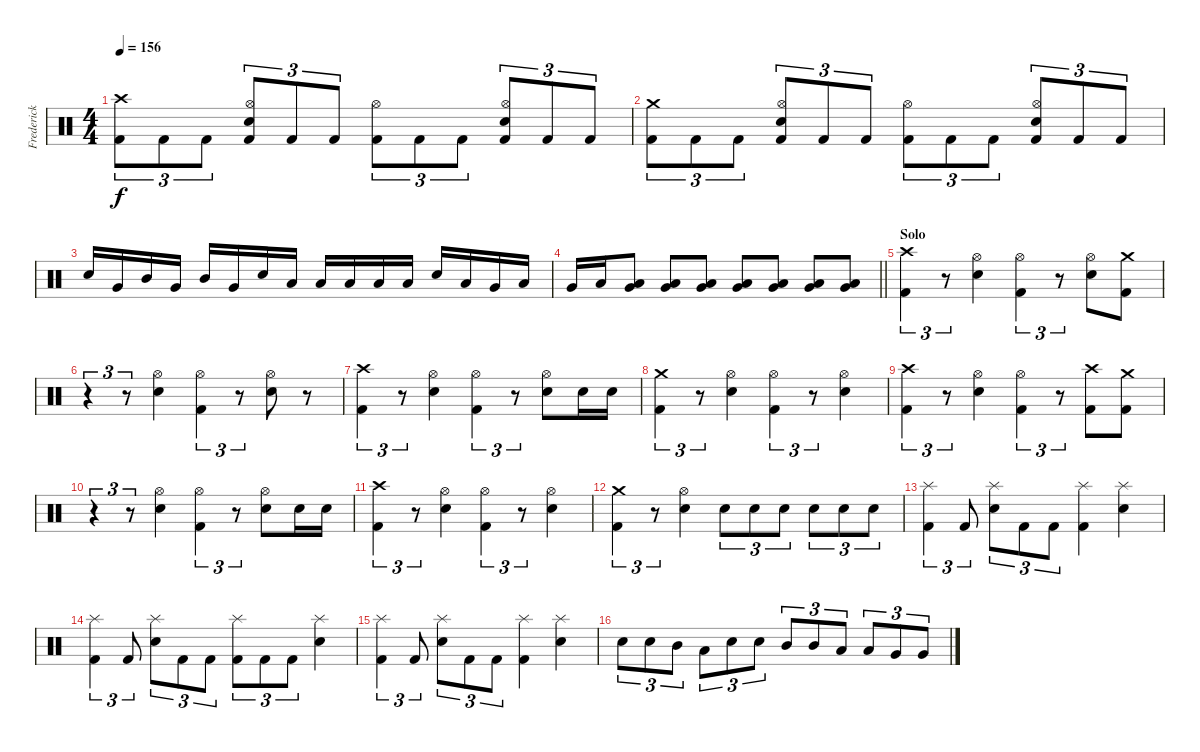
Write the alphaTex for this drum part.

\track ("Frederick Ehmke" "Frederick ") {instrument percussion}
\staff {score}
\articulation defaults
\ts (4 4)
\tempo 156
\clef neutral
\ks c
("Crash high (hit)" "Kick (hit) 2").8{tu (3 2) dy f} "Kick (hit) 2".8{tu (3 2)} "Kick (hit) 2".8{tu (3 2)} ("Hi-Hat (open)" "Kick (hit) 2" "Electric Snare (hit)").8{tu (3 2)} "Kick (hit) 2".8{tu (3 2)} "Kick (hit) 2".8{tu (3 2)} ("Hi-Hat (open)" "Kick (hit) 2").8{tu (3 2)} "Kick (hit) 2".8{tu (3 2)} "Kick (hit) 2".8{tu (3 2)} ("Hi-Hat (open)" "Kick (hit) 2" "Electric Snare (hit)").8{tu (3 2)} "Kick (hit) 2".8{tu (3 2)} "Kick (hit) 2".8{tu (3 2)} |
("Crash medium (hit)" "Kick (hit) 2").8{tu (3 2)} "Kick (hit) 2".8{tu (3 2)} "Kick (hit) 2".8{tu (3 2)} ("Hi-Hat (open)" "Kick (hit) 2" "Electric Snare (hit)").8{tu (3 2)} "Kick (hit) 2".8{tu (3 2)} "Kick (hit) 2".8{tu (3 2)} ("Hi-Hat (open)" "Kick (hit) 2").8{tu (3 2)} "Kick (hit) 2".8{tu (3 2)} "Kick (hit) 2".8{tu (3 2)} ("Hi-Hat (open)" "Kick (hit) 2" "Electric Snare (hit)").8{tu (3 2)} "Kick (hit) 2".8{tu (3 2)} "Kick (hit) 2".8{tu (3 2)} |
"Electric Snare (hit)".16 "Very Low Tom (hit)".16 "Mid Tom (hit)".16 "Very Low Tom (hit)".16 "Mid Tom (hit)".16 "Very Low Tom (hit)".16 "Electric Snare (hit)".16 "Low Floor Tom (hit)".16 "Low Tom (hit)".16 "Low Floor Tom (hit)".16 "Low Tom (hit)".16 "Low Floor Tom (hit)".16 "Electric Snare (hit)".16 "Low Floor Tom (hit)".16 "Very Low Tom (hit)".16 "Low Floor Tom (hit)".16 |
\barLineRight lightlight "Very Low Tom (hit)".16 "Low Floor Tom (hit)".16
("Very Low Tom (hit)" "Low Tom (hit)").8 ("Very Low Tom (hit)" "Low Tom (hit)").8 ("Very Low Tom (hit)" "Low Tom (hit)").8 ("Low Floor Tom (hit)" "Very Low Tom (hit)").8 ("Low Floor Tom (hit)" "Very Low Tom (hit)").8 ("Low Floor Tom (hit)" "Very Low Tom (hit)").8 ("Low Floor Tom (hit)" "Very Low Tom (hit)").8 |
\section ("" "Solo")
("Crash high (hit)" "Kick (hit) 2").4{tu (3 2)} r.8{tu (3 2)} ("Hi-Hat (open)" "Electric Snare (hit)").4 ("Hi-Hat (open)" "Kick (hit) 2").4{tu (3 2)} r.8{tu (3 2)} ("Hi-Hat (open)" "Electric Snare (hit)").8 ("Crash medium (hit)" "Kick (hit) 2").8 |
r.4{tu (3 2)} r.8{tu (3 2)} ("Hi-Hat (open)" "Electric Snare (hit)").4 ("Hi-Hat (open)" "Kick (hit) 2").4{tu (3 2)} r.8{tu (3 2)} ("Hi-Hat (open)" "Electric Snare (hit)").8 r.8 |
("Crash high (hit)" "Kick (hit) 2").4{tu (3 2)} r.8{tu (3 2)} ("Hi-Hat (open)" "Electric Snare (hit)").4 ("Hi-Hat (open)" "Kick (hit) 2").4{tu (3 2)} r.8{tu (3 2)} ("Hi-Hat (open)" "Electric Snare (hit)").8 "Electric Snare (hit)".16 "Electric Snare (hit)".16 |
("Crash medium (hit)" "Kick (hit) 2").4{tu (3 2)} r.8{tu (3 2)} ("Hi-Hat (open)" "Electric Snare (hit)").4 ("Hi-Hat (open)" "Kick (hit) 2").4{tu (3 2)} r.8{tu (3 2)} ("Hi-Hat (open)" "Electric Snare (hit)").4 |
("Crash high (hit)" "Kick (hit) 2").4{tu (3 2)} r.8{tu (3 2)} ("Hi-Hat (open)" "Electric Snare (hit)").4 ("Hi-Hat (open)" "Kick (hit) 2").4{tu (3 2)} r.8{tu (3 2)} ("Crash high (hit)" "Kick (hit) 2").8 ("Crash medium (hit)" "Kick (hit) 2").8 |
r.4{tu (3 2)} r.8{tu (3 2)} ("Hi-Hat (open)" "Electric Snare (hit)").4 ("Hi-Hat (open)" "Kick (hit) 2").4{tu (3 2)} r.8{tu (3 2)} ("Hi-Hat (open)" "Electric Snare (hit)").8 "Electric Snare (hit)".16 "Electric Snare (hit)".16 |
("Crash high (hit)" "Kick (hit) 2").4{tu (3 2)} r.8{tu (3 2)} ("Hi-Hat (open)" "Electric Snare (hit)").4 ("Hi-Hat (open)" "Kick (hit) 2").4{tu (3 2)} r.8{tu (3 2)} ("Hi-Hat (open)" "Electric Snare (hit)").4 |
("Crash medium (hit)" "Kick (hit) 2").4{tu (3 2)} r.8{tu (3 2)} ("Hi-Hat (open)" "Electric Snare (hit)").4 "Electric Snare (hit)".8{tu (3 2)} "Electric Snare (hit)".8{tu (3 2)} "Electric Snare (hit)".8{tu (3 2)} "Electric Snare (hit)".8{tu (3 2)} "Electric Snare (hit)".8{tu (3 2)} "Electric Snare (hit)".8{tu (3 2)} |
("Splash (hit)" "Kick (hit) 2").4{tu (3 2)} "Kick (hit) 2".8{tu (3 2)} ("Splash (hit)" "Electric Snare (hit)").8{tu (3 2)} "Kick (hit) 2".8{tu (3 2)} "Kick (hit) 2".8{tu (3 2)} ("Splash (hit)" "Kick (hit) 2").4 ("Splash (hit)" "Electric Snare (hit)").4 |
("Splash (hit)" "Kick (hit) 2").4{tu (3 2)} "Kick (hit) 2".8{tu (3 2)} ("Splash (hit)" "Electric Snare (hit)").8{tu (3 2)} "Kick (hit) 2".8{tu (3 2)} "Kick (hit) 2".8{tu (3 2)} ("Splash (hit)" "Kick (hit) 2").8{tu (3 2)} "Kick (hit) 2".8{tu (3 2)} "Kick (hit) 2".8{tu (3 2)} ("Splash (hit)" "Electric Snare (hit)").4 |
("Splash (hit)" "Kick (hit) 2").4{tu (3 2)} "Kick (hit) 2".8{tu (3 2)} ("Splash (hit)" "Electric Snare (hit)").8{tu (3 2)} "Kick (hit) 2".8{tu (3 2)} "Kick (hit) 2".8{tu (3 2)} ("Splash (hit)" "Kick (hit) 2").4 ("Splash (hit)" "Electric Snare (hit)").4 |
"Electric Snare (hit)".8{tu (3 2)} "Electric Snare (hit)".8{tu (3 2)} "Mid Tom (hit)".8{tu (3 2)} "Low Tom (hit)".8{tu (3 2)} "Electric Snare (hit)".8{tu (3 2)} "Electric Snare (hit)".8{tu (3 2)} "Mid Tom (hit)".8{tu (3 2)} "Mid Tom (hit)".8{tu (3 2)} "Low Tom (hit)".8{tu (3 2)} "Low Tom (hit)".8{tu (3 2)} "Very Low Tom (hit)".8{tu (3 2)} "Very Low Tom (hit)".8{tu (3 2)}
